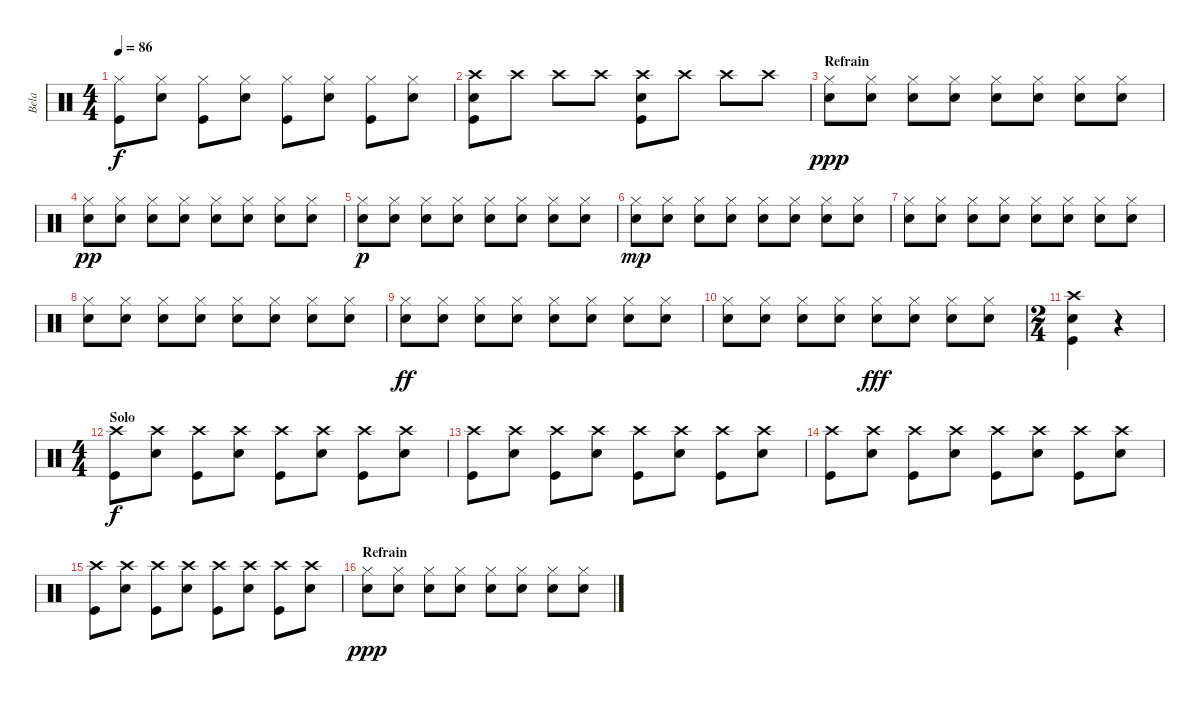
\track ("Bela" "Bela") {instrument percussion}
\staff {score}
\articulation defaults
\ts (4 4)
\tempo 86
\clef neutral
\ks c
("Hi-Hat (closed)" "Kick (hit)").8{dy f} ("Hi-Hat (closed)" "Snare (hit) 2").8 ("Hi-Hat (closed)" "Kick (hit)").8 ("Hi-Hat (closed)" "Snare (hit) 2").8 ("Hi-Hat (closed)" "Kick (hit)").8 ("Hi-Hat (closed)" "Snare (hit) 2").8 ("Hi-Hat (closed)" "Kick (hit)").8 ("Hi-Hat (closed)" "Snare (hit) 2").8 |
("Crash high (hit)" "Snare (hit) 2" "Kick (hit)").8 "Crash high (hit)".8 "Crash high (hit)".8 "Crash high (hit)".8 ("Crash high (hit)" "Snare (hit) 2" "Kick (hit)").8 "Crash high (hit)".8 "Crash high (hit)".8 "Crash high (hit)".8 |
\section ("" "Refrain")
("Hi-Hat (closed)" "Snare (hit) 2").8{dy ppp} ("Hi-Hat (closed)" "Snare (hit) 2").8 ("Hi-Hat (closed)" "Snare (hit) 2").8 ("Hi-Hat (closed)" "Snare (hit) 2").8 ("Hi-Hat (closed)" "Snare (hit) 2").8 ("Hi-Hat (closed)" "Snare (hit) 2").8 ("Hi-Hat (closed)" "Snare (hit) 2").8 ("Hi-Hat (closed)" "Snare (hit) 2").8 |
("Hi-Hat (closed)" "Snare (hit) 2").8{dy pp} ("Hi-Hat (closed)" "Snare (hit) 2").8 ("Hi-Hat (closed)" "Snare (hit) 2").8 ("Hi-Hat (closed)" "Snare (hit) 2").8 ("Hi-Hat (closed)" "Snare (hit) 2").8 ("Hi-Hat (closed)" "Snare (hit) 2").8 ("Hi-Hat (closed)" "Snare (hit) 2").8 ("Hi-Hat (closed)" "Snare (hit) 2").8 |
("Hi-Hat (closed)" "Snare (hit) 2").8{dy p} ("Hi-Hat (closed)" "Snare (hit) 2").8 ("Hi-Hat (closed)" "Snare (hit) 2").8 ("Hi-Hat (closed)" "Snare (hit) 2").8 ("Hi-Hat (closed)" "Snare (hit) 2").8 ("Hi-Hat (closed)" "Snare (hit) 2").8 ("Hi-Hat (closed)" "Snare (hit) 2").8 ("Hi-Hat (closed)" "Snare (hit) 2").8 |
("Hi-Hat (closed)" "Snare (hit) 2").8{dy mp} ("Hi-Hat (closed)" "Snare (hit) 2").8 ("Hi-Hat (closed)" "Snare (hit) 2").8 ("Hi-Hat (closed)" "Snare (hit) 2").8 ("Hi-Hat (closed)" "Snare (hit) 2").8 ("Hi-Hat (closed)" "Snare (hit) 2").8 ("Hi-Hat (closed)" "Snare (hit) 2").8 ("Hi-Hat (closed)" "Snare (hit) 2").8 |
("Hi-Hat (closed)" "Snare (hit) 2").8 ("Hi-Hat (closed)" "Snare (hit) 2").8 ("Hi-Hat (closed)" "Snare (hit) 2").8 ("Hi-Hat (closed)" "Snare (hit) 2").8 ("Hi-Hat (closed)" "Snare (hit) 2").8 ("Hi-Hat (closed)" "Snare (hit) 2").8 ("Hi-Hat (closed)" "Snare (hit) 2").8 ("Hi-Hat (closed)" "Snare (hit) 2").8 |
("Hi-Hat (closed)" "Snare (hit) 2").8 ("Hi-Hat (closed)" "Snare (hit) 2").8 ("Hi-Hat (closed)" "Snare (hit) 2").8 ("Hi-Hat (closed)" "Snare (hit) 2").8 ("Hi-Hat (closed)" "Snare (hit) 2").8 ("Hi-Hat (closed)" "Snare (hit) 2").8 ("Hi-Hat (closed)" "Snare (hit) 2").8 ("Hi-Hat (closed)" "Snare (hit) 2").8 |
("Hi-Hat (closed)" "Snare (hit) 2").8{dy ff} ("Hi-Hat (closed)" "Snare (hit) 2").8 ("Hi-Hat (closed)" "Snare (hit) 2").8 ("Hi-Hat (closed)" "Snare (hit) 2").8 ("Hi-Hat (closed)" "Snare (hit) 2").8 ("Hi-Hat (closed)" "Snare (hit) 2").8 ("Hi-Hat (closed)" "Snare (hit) 2").8 ("Hi-Hat (closed)" "Snare (hit) 2").8 |
("Hi-Hat (closed)" "Snare (hit) 2").8 ("Hi-Hat (closed)" "Snare (hit) 2").8 ("Hi-Hat (closed)" "Snare (hit) 2").8 ("Hi-Hat (closed)" "Snare (hit) 2").8 ("Hi-Hat (closed)" "Snare (hit) 2").8{dy fff} ("Hi-Hat (closed)" "Snare (hit) 2").8 ("Hi-Hat (closed)" "Snare (hit) 2").8 ("Hi-Hat (closed)" "Snare (hit) 2").8 |
\ts (2 4)
("Crash high (hit)" "Snare (hit) 2" "Kick (hit)").4 r.4 |
\ts (4 4)
\section ("" "Solo")
("Crash high (hit)" "Kick (hit)").8{dy f} ("Crash high (hit)" "Snare (hit) 2").8 ("Crash high (hit)" "Kick (hit)").8 ("Crash high (hit)" "Snare (hit) 2").8 ("Crash high (hit)" "Kick (hit)").8 ("Crash high (hit)" "Snare (hit) 2").8 ("Crash high (hit)" "Kick (hit)").8 ("Crash high (hit)" "Snare (hit) 2").8 |
("Crash high (hit)" "Kick (hit)").8 ("Crash high (hit)" "Snare (hit) 2").8 ("Crash high (hit)" "Kick (hit)").8 ("Crash high (hit)" "Snare (hit) 2").8 ("Crash high (hit)" "Kick (hit)").8 ("Crash high (hit)" "Snare (hit) 2").8 ("Crash high (hit)" "Kick (hit)").8 ("Crash high (hit)" "Snare (hit) 2").8 |
("Crash high (hit)" "Kick (hit)").8 ("Crash high (hit)" "Snare (hit) 2").8 ("Crash high (hit)" "Kick (hit)").8 ("Crash high (hit)" "Snare (hit) 2").8 ("Crash high (hit)" "Kick (hit)").8 ("Crash high (hit)" "Snare (hit) 2").8 ("Crash high (hit)" "Kick (hit)").8 ("Crash high (hit)" "Snare (hit) 2").8 |
("Crash high (hit)" "Kick (hit)").8 ("Crash high (hit)" "Snare (hit) 2").8 ("Crash high (hit)" "Kick (hit)").8 ("Crash high (hit)" "Snare (hit) 2").8 ("Crash high (hit)" "Kick (hit)").8 ("Crash high (hit)" "Snare (hit) 2").8 ("Crash high (hit)" "Kick (hit)").8 ("Crash high (hit)" "Snare (hit) 2").8 |
\section ("" "Refrain")
("Hi-Hat (closed)" "Snare (hit) 2").8{dy ppp} ("Hi-Hat (closed)" "Snare (hit) 2").8 ("Hi-Hat (closed)" "Snare (hit) 2").8 ("Hi-Hat (closed)" "Snare (hit) 2").8 ("Hi-Hat (closed)" "Snare (hit) 2").8 ("Hi-Hat (closed)" "Snare (hit) 2").8 ("Hi-Hat (closed)" "Snare (hit) 2").8 ("Hi-Hat (closed)" "Snare (hit) 2").8
